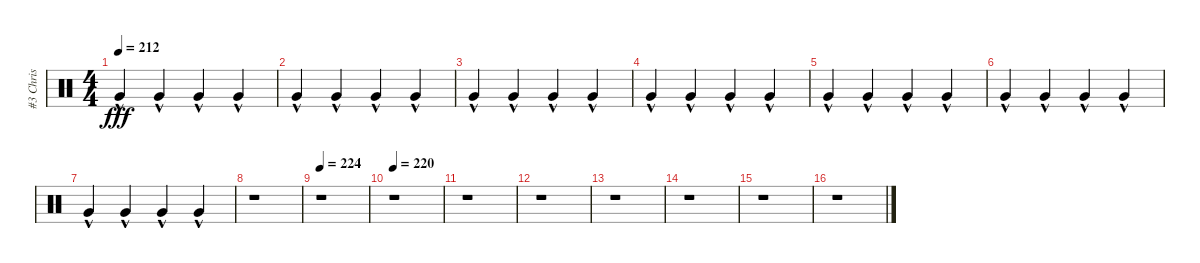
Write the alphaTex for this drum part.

\track ("#3 Chris" "#3 Chris") {instrument percussion}
\staff {score}
\articulation defaults
\ts (4 4)
\tempo 212
\clef neutral
\ks c "Very Low Tom (hit)"{hac}.4{dy fff} "Very Low Tom (hit)"{hac}.4 "Very Low Tom (hit)"{hac}.4 "Very Low Tom (hit)"{hac}.4
|
"Very Low Tom (hit)"{hac}.4 "Very Low Tom (hit)"{hac}.4 "Very Low Tom (hit)"{hac}.4 "Very Low Tom (hit)"{hac}.4 |
"Very Low Tom (hit)"{hac}.4 "Very Low Tom (hit)"{hac}.4 "Very Low Tom (hit)"{hac}.4 "Very Low Tom (hit)"{hac}.4 |
"Very Low Tom (hit)"{hac}.4 "Very Low Tom (hit)"{hac}.4 "Very Low Tom (hit)"{hac}.4 "Very Low Tom (hit)"{hac}.4 |
"Very Low Tom (hit)"{hac}.4 "Very Low Tom (hit)"{hac}.4 "Very Low Tom (hit)"{hac}.4 "Very Low Tom (hit)"{hac}.4 |
"Very Low Tom (hit)"{hac}.4 "Very Low Tom (hit)"{hac}.4 "Very Low Tom (hit)"{hac}.4 "Very Low Tom (hit)"{hac}.4 |
"Very Low Tom (hit)"{hac}.4 "Very Low Tom (hit)"{hac}.4 "Very Low Tom (hit)"{hac}.4 "Very Low Tom (hit)"{hac}.4 |
r.1 |
\tempo 224
r.1 |
\tempo 220
r.1 |
r.1 |
r.1 |
r.1 |
r.1 |
r.1 |
r.1
